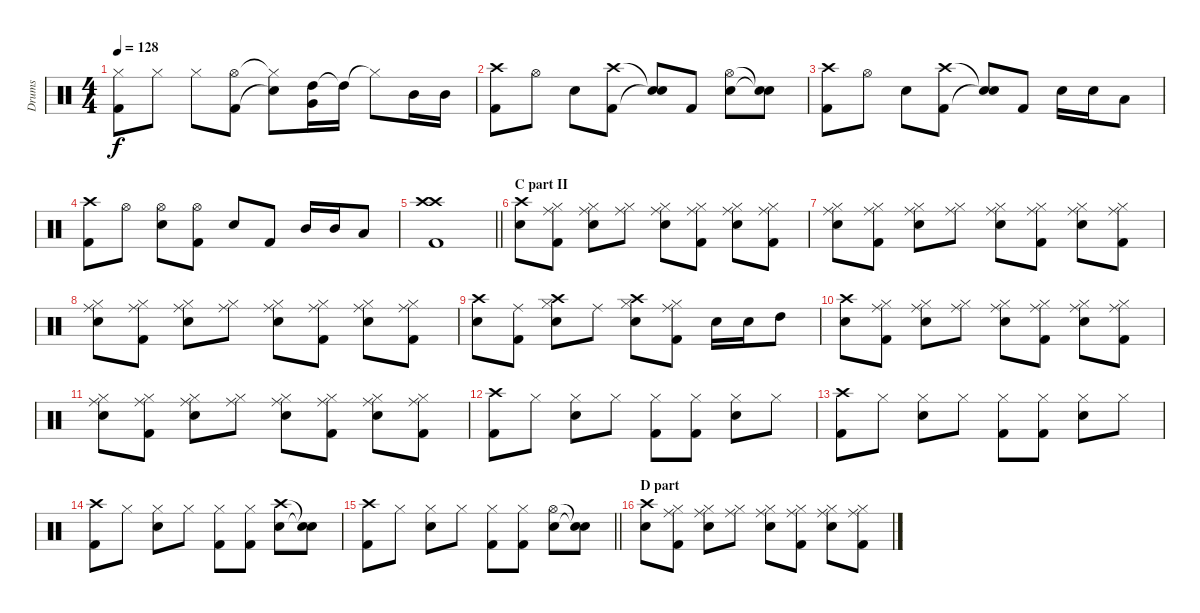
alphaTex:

\track ("Drums" "Drums") {instrument percussion}
\staff {score}
\articulation defaults
\ts (4 4)
\tempo 128
\clef neutral
\ks c
("Hi-Hat (closed)" "Kick (hit) 2").8{dy f} "Hi-Hat (closed)".8 "Hi-Hat (closed)".8 ("Hi-Hat (open)" "Kick (hit) 2").8 ("Hi-Hat (closed)"{t} "Snare (hit)"{t}).8 ("High Tom (hit)" "Very Low Tom (hit)").16 "High Tom (hit)"{t}.16 "Hi-Hat (closed)"{t}.8 "Mid Tom (hit)".16 "Mid Tom (hit)".16 |
("Crash high (hit)" "Kick (hit) 2").8 "Hi-Hat (open)".8 "Snare (hit) 2".8 ("Crash high (hit)" "Kick (hit) 2").8 ("Snare (hit)"{t} "Snare (hit)"{t}).8 "Kick (hit) 2".8 ("Hi-Hat (open)" "Snare (hit) 2").8 ("Snare (hit)"{t} "Snare (hit)"{t}).8 |
("Crash high (hit)" "Kick (hit) 2").8 "Hi-Hat (open)".8 "Snare (hit) 2".8 ("Crash high (hit)" "Kick (hit) 2").8 ("Snare (hit)"{t} "Snare (hit)"{t}).8 "Kick (hit) 2".8 "Snare (hit) 2".16 "Snare (hit) 2".16 "Low Tom (hit)".8 |
("Crash high (hit)" "Kick (hit) 2").8 "Hi-Hat (open)".8 ("Hi-Hat (open)" "Snare (hit) 2").8 ("Hi-Hat (open)" "Kick (hit) 2").8 "Snare (hit) 2".8 "Kick (hit) 2".8 "Mid Tom (hit)".16 "Mid Tom (hit)".16 "Low Tom (hit)".8 |
\barLineRight lightlight
("Crash high (hit)" "Crash high (hit)" "Kick (hit) 2").1 |
\section ("" "C part II")
("Crash high (hit)" "Snare (hit) 2").8 ("Ride (middle)" "Hi-Hat (closed)" "Kick (hit) 2").8 ("Ride (middle)" "Hi-Hat (closed)" "Snare (hit) 2").8 ("Ride (middle)" "Hi-Hat (closed)").8 ("Ride (middle)" "Hi-Hat (closed)" "Snare (hit) 2").8 ("Ride (middle)" "Hi-Hat (closed)" "Kick (hit) 2").8 ("Ride (middle)" "Hi-Hat (closed)" "Snare (hit) 2").8 ("Ride (middle)" "Hi-Hat (closed)" "Kick (hit) 2").8 |
("Ride (middle)" "Hi-Hat (closed)" "Snare (hit) 2").8 ("Ride (middle)" "Hi-Hat (closed)" "Kick (hit) 2").8 ("Ride (middle)" "Hi-Hat (closed)" "Snare (hit) 2").8 ("Ride (middle)" "Hi-Hat (closed)").8 ("Ride (middle)" "Hi-Hat (closed)" "Snare (hit) 2").8 ("Ride (middle)" "Hi-Hat (closed)" "Kick (hit) 2").8 ("Ride (middle)" "Hi-Hat (closed)" "Snare (hit) 2").8 ("Ride (middle)" "Hi-Hat (closed)" "Kick (hit) 2").8 |
("Ride (middle)" "Hi-Hat (closed)" "Snare (hit) 2").8 ("Ride (middle)" "Hi-Hat (closed)" "Kick (hit) 2").8 ("Ride (middle)" "Hi-Hat (closed)" "Snare (hit) 2").8 ("Ride (middle)" "Hi-Hat (closed)").8 ("Ride (middle)" "Hi-Hat (closed)" "Snare (hit) 2").8 ("Ride (middle)" "Hi-Hat (closed)" "Kick (hit) 2").8 ("Ride (middle)" "Hi-Hat (closed)" "Snare (hit) 2").8 ("Ride (middle)" "Hi-Hat (closed)" "Kick (hit) 2").8 |
("Crash high (hit)" "Snare (hit) 2").8 ("Ride (middle)" "Kick (hit) 2").8 ("Crash high (hit)" "Hi-Hat (closed)" "Snare (hit) 2").8 "Ride (middle)".8 ("Crash high (hit)" "Hi-Hat (closed)" "Snare (hit) 2").8 ("Ride (middle)" "Hi-Hat (closed)" "Kick (hit) 2").8 "Snare (hit) 2".16 "Snare (hit) 2".16 "High Tom (hit)".8 |
("Crash high (hit)" "Snare (hit) 2").8 ("Ride (middle)" "Hi-Hat (closed)" "Kick (hit) 2").8 ("Ride (middle)" "Hi-Hat (closed)" "Snare (hit) 2").8 ("Ride (middle)" "Hi-Hat (closed)").8 ("Ride (middle)" "Hi-Hat (closed)" "Snare (hit) 2").8 ("Ride (middle)" "Hi-Hat (closed)" "Kick (hit) 2").8 ("Ride (middle)" "Hi-Hat (closed)" "Snare (hit) 2").8 ("Ride (middle)" "Hi-Hat (closed)" "Kick (hit) 2").8 |
("Ride (middle)" "Hi-Hat (closed)" "Snare (hit) 2").8 ("Ride (middle)" "Hi-Hat (closed)" "Kick (hit) 2").8 ("Ride (middle)" "Hi-Hat (closed)" "Snare (hit) 2").8 ("Ride (middle)" "Hi-Hat (closed)").8 ("Ride (middle)" "Hi-Hat (closed)" "Snare (hit) 2").8 ("Ride (middle)" "Hi-Hat (closed)" "Kick (hit) 2").8 ("Ride (middle)" "Hi-Hat (closed)" "Snare (hit) 2").8 ("Ride (middle)" "Hi-Hat (closed)" "Kick (hit) 2").8 |
("Crash high (hit)" "Kick (hit) 2").8 "Hi-Hat (closed)".8 ("Hi-Hat (closed)" "Snare (hit) 2").8 "Hi-Hat (closed)".8 ("Hi-Hat (closed)" "Kick (hit) 2").8 ("Hi-Hat (closed)" "Kick (hit) 2").8 ("Hi-Hat (closed)" "Snare (hit) 2").8 "Hi-Hat (closed)".8 |
("Crash high (hit)" "Kick (hit) 2").8 "Hi-Hat (closed)".8 ("Hi-Hat (closed)" "Snare (hit) 2").8 "Hi-Hat (closed)".8 ("Hi-Hat (closed)" "Kick (hit) 2").8 ("Hi-Hat (closed)" "Kick (hit) 2").8 ("Hi-Hat (closed)" "Snare (hit) 2").8 "Hi-Hat (closed)".8 |
("Crash high (hit)" "Kick (hit) 2").8 "Hi-Hat (closed)".8 ("Hi-Hat (closed)" "Snare (hit) 2").8 "Hi-Hat (closed)".8 ("Hi-Hat (closed)" "Kick (hit) 2").8 ("Hi-Hat (closed)" "Kick (hit) 2").8 ("Crash high (hit)" "Snare (hit) 2").8 ("Snare (hit)"{t} "Snare (hit)"{t}).8 |
\barLineRight lightlight
("Crash high (hit)" "Kick (hit) 2").8 "Hi-Hat (closed)".8 ("Hi-Hat (closed)" "Snare (hit) 2").8 "Hi-Hat (closed)".8 ("Hi-Hat (closed)" "Kick (hit) 2").8 ("Hi-Hat (closed)" "Kick (hit) 2").8 ("Hi-Hat (open)" "Snare (hit) 2").8 ("Snare (hit)"{t} "Snare (hit)"{t}).8 |
\section ("" "D part")
("Crash high (hit)" "Snare (hit) 2").8 ("Ride (middle)" "Hi-Hat (closed)" "Kick (hit) 2").8 ("Ride (middle)" "Hi-Hat (closed)" "Snare (hit) 2").8 ("Ride (middle)" "Hi-Hat (closed)").8 ("Ride (middle)" "Hi-Hat (closed)" "Snare (hit) 2").8 ("Ride (middle)" "Hi-Hat (closed)" "Kick (hit) 2").8 ("Ride (middle)" "Hi-Hat (closed)" "Snare (hit) 2").8 ("Ride (middle)" "Hi-Hat (closed)" "Kick (hit) 2").8
